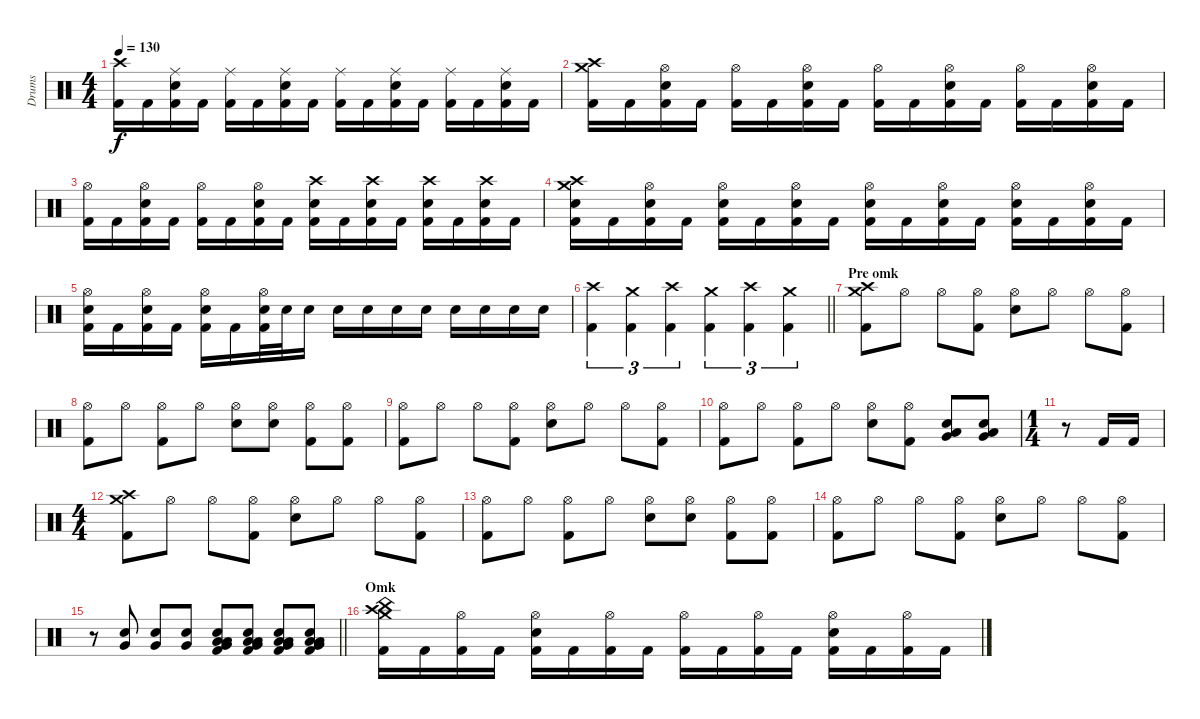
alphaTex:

\track ("Drums" "Drums") {instrument percussion}
\staff {score}
\articulation defaults
\ts (4 4)
\tempo 130
\clef neutral
\ks c
("Crash high (hit)" "Kick (hit) 2").16{dy f} "Kick (hit) 2".16 ("Ride (middle)" "Electric Snare (hit)" "Kick (hit) 2").16 "Kick (hit) 2".16 ("Ride (middle)" "Kick (hit) 2").16 "Kick (hit) 2".16 ("Ride (middle)" "Electric Snare (hit)" "Kick (hit) 2").16 "Kick (hit) 2".16 ("Ride (middle)" "Kick (hit) 2").16 "Kick (hit) 2".16 ("Ride (middle)" "Electric Snare (hit)" "Kick (hit) 2").16 "Kick (hit) 2".16 ("Ride (middle)" "Kick (hit) 2").16 "Kick (hit) 2".16 ("Ride (middle)" "Electric Snare (hit)" "Kick (hit) 2").16 "Kick (hit) 2".16 |
("Crash medium (hit)" "Crash high (hit)" "Kick (hit) 2").16 "Kick (hit) 2".16 ("Hi-Hat (open)" "Electric Snare (hit)" "Kick (hit) 2").16 "Kick (hit) 2".16 ("Hi-Hat (open)" "Kick (hit) 2").16 "Kick (hit) 2".16 ("Hi-Hat (open)" "Electric Snare (hit)" "Kick (hit) 2").16 "Kick (hit) 2".16 ("Hi-Hat (open)" "Kick (hit) 2").16 "Kick (hit) 2".16 ("Hi-Hat (open)" "Electric Snare (hit)" "Kick (hit) 2").16 "Kick (hit) 2".16 ("Hi-Hat (open)" "Kick (hit) 2").16 "Kick (hit) 2".16 ("Hi-Hat (open)" "Electric Snare (hit)" "Kick (hit) 2").16 "Kick (hit) 2".16 |
("Hi-Hat (open)" "Kick (hit) 2").16 "Kick (hit) 2".16 ("Hi-Hat (open)" "Electric Snare (hit)" "Kick (hit) 2").16 "Kick (hit) 2".16 ("Hi-Hat (open)" "Kick (hit) 2").16 "Kick (hit) 2".16 ("Hi-Hat (open)" "Electric Snare (hit)" "Kick (hit) 2").16 "Kick (hit) 2".16 ("Crash high (hit)" "Electric Snare (hit)" "Kick (hit) 2").16 "Kick (hit) 2".16 ("Crash high (hit)" "Electric Snare (hit)" "Kick (hit) 2").16 "Kick (hit) 2".16 ("Crash high (hit)" "Electric Snare (hit)" "Kick (hit) 2").16 "Kick (hit) 2".16 ("Crash high (hit)" "Electric Snare (hit)" "Kick (hit) 2").16 "Kick (hit) 2".16 |
("Crash medium (hit)" "Crash high (hit)" "Electric Snare (hit)" "Kick (hit) 2").16 "Kick (hit) 2".16 ("Hi-Hat (open)" "Electric Snare (hit)" "Kick (hit) 2").16 "Kick (hit) 2".16 ("Hi-Hat (open)" "Electric Snare (hit)" "Kick (hit) 2").16 "Kick (hit) 2".16 ("Hi-Hat (open)" "Electric Snare (hit)" "Kick (hit) 2").16 "Kick (hit) 2".16 ("Hi-Hat (open)" "Electric Snare (hit)" "Kick (hit) 2").16 "Kick (hit) 2".16 ("Hi-Hat (open)" "Electric Snare (hit)" "Kick (hit) 2").16 "Kick (hit) 2".16 ("Hi-Hat (open)" "Electric Snare (hit)" "Kick (hit) 2").16 "Kick (hit) 2".16 ("Hi-Hat (open)" "Electric Snare (hit)" "Kick (hit) 2").16 "Kick (hit) 2".16 |
("Hi-Hat (open)" "Electric Snare (hit)" "Kick (hit) 2").16 "Kick (hit) 2".16 ("Hi-Hat (open)" "Electric Snare (hit)" "Kick (hit) 2").16 "Kick (hit) 2".16 ("Hi-Hat (open)" "Electric Snare (hit)" "Kick (hit) 2").16 "Kick (hit) 2".16 ("Hi-Hat (open)" "Electric Snare (hit)" "Kick (hit) 2").32 "Electric Snare (hit)".32 "Electric Snare (hit)".16 "Electric Snare (hit)".16 "Electric Snare (hit)".16 "Electric Snare (hit)".16 "Electric Snare (hit)".16 "Electric Snare (hit)".16 "Electric Snare (hit)".16 "Electric Snare (hit)".16 "Electric Snare (hit)".16 |
\barLineRight lightlight
("Crash high (hit)" "Kick (hit) 2").4{tu (3 2)} ("Crash medium (hit)" "Kick (hit) 2").4{tu (3 2)} ("Crash high (hit)" "Kick (hit) 2").4{tu (3 2)} ("Crash medium (hit)" "Kick (hit) 2").4{tu (3 2)} ("Crash high (hit)" "Kick (hit) 2").4{tu (3 2)} ("Crash medium (hit)" "Kick (hit) 2").4{tu (3 2)} |
\section ("" "Pre omk")
("Crash medium (hit)" "Crash high (hit)" "Kick (hit) 2").8 "Hi-Hat (open)".8 "Hi-Hat (open)".8 ("Hi-Hat (open)" "Kick (hit) 2").8 ("Hi-Hat (open)" "Snare (hit) 2").8 "Hi-Hat (open)".8 "Hi-Hat (open)".8 ("Hi-Hat (open)" "Kick (hit) 2").8 |
("Hi-Hat (open)" "Kick (hit) 2").8 "Hi-Hat (open)".8 ("Hi-Hat (open)" "Kick (hit) 2").8 "Hi-Hat (open)".8 ("Hi-Hat (open)" "Snare (hit) 2").8 ("Hi-Hat (open)" "Snare (hit) 2").8 ("Hi-Hat (open)" "Kick (hit) 2").8 ("Hi-Hat (open)" "Kick (hit) 2").8 |
("Hi-Hat (open)" "Kick (hit) 2").8 "Hi-Hat (open)".8 "Hi-Hat (open)".8 ("Hi-Hat (open)" "Kick (hit) 2").8 ("Hi-Hat (open)" "Snare (hit) 2").8 "Hi-Hat (open)".8 "Hi-Hat (open)".8 ("Hi-Hat (open)" "Kick (hit) 2").8 |
("Hi-Hat (open)" "Kick (hit) 2").8 "Hi-Hat (open)".8 ("Hi-Hat (open)" "Kick (hit) 2").8 "Hi-Hat (open)".8 ("Hi-Hat (open)" "Snare (hit) 2").8 ("Hi-Hat (open)" "Kick (hit) 2").8 ("Low Tom (hit)" "Very Low Tom (hit)" "Snare (hit) 2").8 ("Low Tom (hit)" "Very Low Tom (hit)" "Snare (hit) 2").8 |
\ts (1 4)
r.8 "Kick (hit) 2".16 "Kick (hit) 2".16 |
\ts (4 4)
("Crash medium (hit)" "Crash high (hit)" "Kick (hit) 2").8 "Hi-Hat (open)".8 "Hi-Hat (open)".8 ("Hi-Hat (open)" "Kick (hit) 2").8 ("Hi-Hat (open)" "Snare (hit) 2").8 "Hi-Hat (open)".8 "Hi-Hat (open)".8 ("Hi-Hat (open)" "Kick (hit) 2").8 |
("Hi-Hat (open)" "Kick (hit) 2").8 "Hi-Hat (open)".8 ("Hi-Hat (open)" "Kick (hit) 2").8 "Hi-Hat (open)".8 ("Hi-Hat (open)" "Snare (hit) 2").8 ("Hi-Hat (open)" "Snare (hit) 2").8 ("Hi-Hat (open)" "Kick (hit) 2").8 ("Hi-Hat (open)" "Kick (hit) 2").8 |
("Hi-Hat (open)" "Kick (hit) 2").8 "Hi-Hat (open)".8 "Hi-Hat (open)".8 ("Hi-Hat (open)" "Kick (hit) 2").8 ("Hi-Hat (open)" "Snare (hit) 2").8 "Hi-Hat (open)".8 "Hi-Hat (open)".8 ("Hi-Hat (open)" "Kick (hit) 2").8 |
\barLineRight lightlight
r.8 ("Very Low Tom (hit)" "Snare (hit) 2").8 ("Very Low Tom (hit)" "Snare (hit) 2").8 ("Very Low Tom (hit)" "Snare (hit) 2").8 ("Low Tom (hit)" "Low Floor Tom (hit)" "Very Low Tom (hit)" "Snare (hit) 2" "Kick (hit) 2").8 ("Low Tom (hit)" "Low Floor Tom (hit)" "Very Low Tom (hit)" "Snare (hit) 2" "Kick (hit) 2").8 ("Low Tom (hit)" "Low Floor Tom (hit)" "Very Low Tom (hit)" "Snare (hit) 2" "Kick (hit) 2").8 ("Low Tom (hit)" "Low Floor Tom (hit)" "Very Low Tom (hit)" "Snare (hit) 2" "Kick (hit) 2").8 |
\section ("" "Omk")
("Crash medium (hit)" "Crash high (hit)" "China (hit)" "Kick (hit) 2").16 "Kick (hit) 2".16 ("Hi-Hat (open)" "Kick (hit) 2").16 "Kick (hit) 2".16 ("Hi-Hat (open)" "Electric Snare (hit)" "Kick (hit) 2").16 "Kick (hit) 2".16 ("Hi-Hat (open)" "Kick (hit) 2").16 "Kick (hit) 2".16 ("Hi-Hat (open)" "Kick (hit) 2").16 "Kick (hit) 2".16 ("Hi-Hat (open)" "Kick (hit) 2").16 "Kick (hit) 2".16 ("Hi-Hat (open)" "Electric Snare (hit)" "Kick (hit) 2").16 "Kick (hit) 2".16 ("Hi-Hat (open)" "Kick (hit) 2").16 "Kick (hit) 2".16
